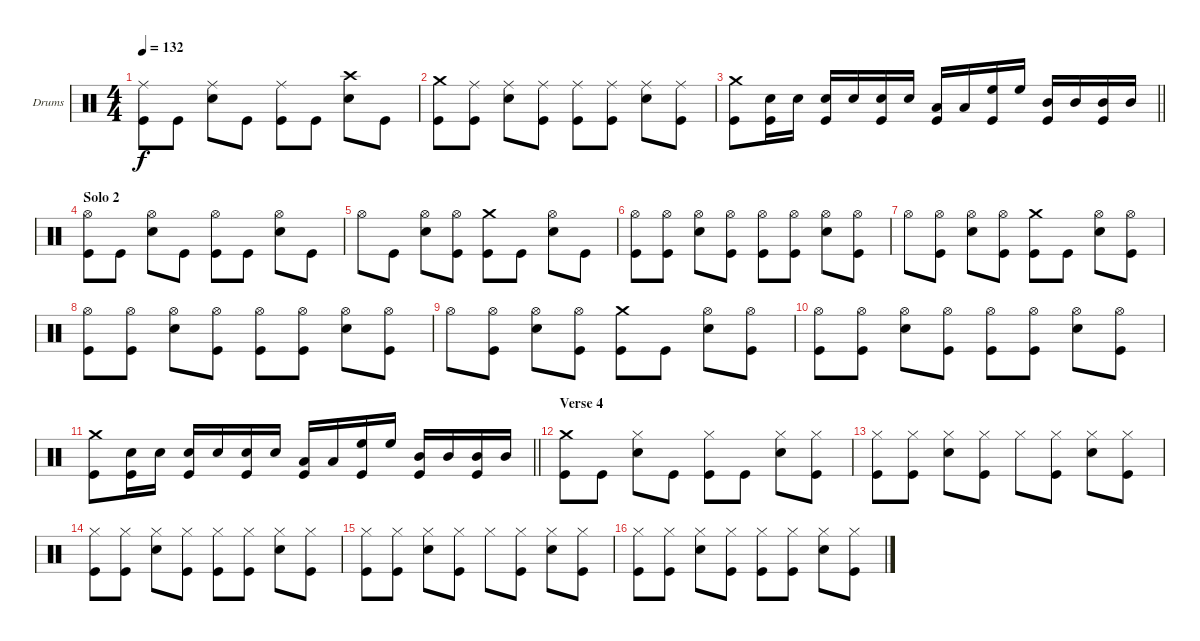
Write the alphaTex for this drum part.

\bracketExtendMode groupsimilarinstruments
\firstSystemTrackNameOrientation horizontal
\otherSystemsTrackNameOrientation horizontal
\track ("Drumkit" "Drums") {instrument percussion}
\staff {score}
\articulation defaults
\ts (4 4)
\tempo 132
\clef neutral
\ks c
("Ride (middle)" "Kick (hit)").8{dy f} "Kick (hit)".8 ("Ride (middle)" "Snare (hit) 2").8 "Kick (hit)".8 ("Ride (middle)" "Kick (hit)").8 "Kick (hit)".8 ("Crash high (hit)" "Snare (hit) 2").8 "Kick (hit)".8 |
("Crash medium (hit)" "Kick (hit)").8 ("Ride (middle)" "Kick (hit)").8 ("Ride (middle)" "Snare (hit) 2").8 ("Ride (middle)" "Kick (hit)").8 ("Ride (middle)" "Kick (hit)").8 ("Ride (middle)" "Kick (hit)").8 ("Ride (middle)" "Snare (hit) 2").8 ("Ride (middle)" "Kick (hit)").8 |
\barLineRight lightlight
("Crash medium (hit)" "Kick (hit)").8 ("Snare (hit) 2" "Kick (hit)").16 "Snare (hit) 2".16 ("Snare (hit) 2" "Kick (hit)").16 "Snare (hit) 2".16 ("Snare (hit) 2" "Kick (hit)").16 "Snare (hit) 2".16 ("Low Tom (hit)" "Kick (hit)").16 "Low Tom (hit)".16 ("High Floor Tom (hit)" "Kick (hit)").16 "High Floor Tom (hit)".16 ("Mid Tom (hit)" "Kick (hit)").16 "Mid Tom (hit)".16 ("Mid Tom (hit)" "Kick (hit)").16 "Mid Tom (hit)".16 |
\section ("" "Solo 2")
("Hi-Hat (open)" "Kick (hit)").8 "Kick (hit)".8 ("Hi-Hat (open)" "Snare (hit) 2").8 "Kick (hit)".8 ("Hi-Hat (open)" "Kick (hit)").8 "Kick (hit)".8 ("Hi-Hat (open)" "Snare (hit) 2").8 "Kick (hit)".8 |
"Hi-Hat (open)".8 "Kick (hit)".8 ("Hi-Hat (open)" "Snare (hit) 2").8 ("Hi-Hat (open)" "Kick (hit)").8 ("Crash medium (hit)" "Kick (hit)").8 "Kick (hit)".8 ("Hi-Hat (open)" "Snare (hit) 2").8 "Kick (hit)".8 |
("Hi-Hat (open)" "Kick (hit)").8 ("Hi-Hat (open)" "Kick (hit)").8 ("Hi-Hat (open)" "Snare (hit) 2").8 ("Hi-Hat (open)" "Kick (hit)").8 ("Hi-Hat (open)" "Kick (hit)").8 ("Hi-Hat (open)" "Kick (hit)").8 ("Hi-Hat (open)" "Snare (hit) 2").8 ("Hi-Hat (open)" "Kick (hit)").8 |
"Hi-Hat (open)".8 ("Hi-Hat (open)" "Kick (hit)").8 ("Hi-Hat (open)" "Snare (hit) 2").8 ("Hi-Hat (open)" "Kick (hit)").8 ("Crash medium (hit)" "Kick (hit)").8 "Kick (hit)".8 ("Hi-Hat (open)" "Snare (hit) 2").8 ("Hi-Hat (open)" "Kick (hit)").8 |
("Hi-Hat (open)" "Kick (hit)").8 ("Hi-Hat (open)" "Kick (hit)").8 ("Hi-Hat (open)" "Snare (hit) 2").8 ("Hi-Hat (open)" "Kick (hit)").8 ("Hi-Hat (open)" "Kick (hit)").8 ("Hi-Hat (open)" "Kick (hit)").8 ("Hi-Hat (open)" "Snare (hit) 2").8 ("Hi-Hat (open)" "Kick (hit)").8 |
"Hi-Hat (open)".8 ("Hi-Hat (open)" "Kick (hit)").8 ("Hi-Hat (open)" "Snare (hit) 2").8 ("Hi-Hat (open)" "Kick (hit)").8 ("Crash medium (hit)" "Kick (hit)").8 "Kick (hit)".8 ("Hi-Hat (open)" "Snare (hit) 2").8 ("Hi-Hat (open)" "Kick (hit)").8 |
("Hi-Hat (open)" "Kick (hit)").8 ("Hi-Hat (open)" "Kick (hit)").8 ("Hi-Hat (open)" "Snare (hit) 2").8 ("Hi-Hat (open)" "Kick (hit)").8 ("Hi-Hat (open)" "Kick (hit)").8 ("Hi-Hat (open)" "Kick (hit)").8 ("Hi-Hat (open)" "Snare (hit) 2").8 ("Hi-Hat (open)" "Kick (hit)").8 |
\barLineRight lightlight
("Crash medium (hit)" "Kick (hit)").8 ("Snare (hit) 2" "Kick (hit)").16 "Snare (hit) 2".16 ("Snare (hit) 2" "Kick (hit)").16 "Snare (hit) 2".16 ("Snare (hit) 2" "Kick (hit)").16 "Snare (hit) 2".16 ("Low Tom (hit)" "Kick (hit)").16 "Low Tom (hit)".16 ("High Floor Tom (hit)" "Kick (hit)").16 "High Floor Tom (hit)".16 ("Mid Tom (hit)" "Kick (hit)").16 "Mid Tom (hit)".16 ("Mid Tom (hit)" "Kick (hit)").16 "Mid Tom (hit)".16 |
\section ("" "Verse 4")
("Crash medium (hit)" "Kick (hit)").8 "Kick (hit)".8 ("Hi-Hat (closed)" "Snare (hit) 2").8 "Kick (hit)".8 ("Hi-Hat (closed)" "Kick (hit)").8 "Kick (hit)".8 ("Hi-Hat (closed)" "Snare (hit) 2").8 ("Hi-Hat (closed)" "Kick (hit)").8 |
("Hi-Hat (closed)" "Kick (hit)").8 ("Hi-Hat (closed)" "Kick (hit)").8 ("Hi-Hat (closed)" "Snare (hit) 2").8 ("Hi-Hat (closed)" "Kick (hit)").8 "Hi-Hat (closed)".8 ("Hi-Hat (closed)" "Kick (hit)").8 ("Hi-Hat (closed)" "Snare (hit) 2").8 ("Hi-Hat (closed)" "Kick (hit)").8 |
("Hi-Hat (closed)" "Kick (hit)").8 ("Hi-Hat (closed)" "Kick (hit)").8 ("Hi-Hat (closed)" "Snare (hit) 2").8 ("Hi-Hat (closed)" "Kick (hit)").8 ("Hi-Hat (closed)" "Kick (hit)").8 ("Hi-Hat (closed)" "Kick (hit)").8 ("Hi-Hat (closed)" "Snare (hit) 2").8 ("Hi-Hat (closed)" "Kick (hit)").8 |
("Hi-Hat (closed)" "Kick (hit)").8 ("Hi-Hat (closed)" "Kick (hit)").8 ("Hi-Hat (closed)" "Snare (hit) 2").8 ("Hi-Hat (closed)" "Kick (hit)").8 "Hi-Hat (closed)".8 ("Hi-Hat (closed)" "Kick (hit)").8 ("Hi-Hat (closed)" "Snare (hit) 2").8 ("Hi-Hat (closed)" "Kick (hit)").8 |
("Hi-Hat (closed)" "Kick (hit)").8 ("Hi-Hat (closed)" "Kick (hit)").8 ("Hi-Hat (closed)" "Snare (hit) 2").8 ("Hi-Hat (closed)" "Kick (hit)").8 ("Hi-Hat (closed)" "Kick (hit)").8 ("Hi-Hat (closed)" "Kick (hit)").8 ("Hi-Hat (closed)" "Snare (hit) 2").8 ("Hi-Hat (closed)" "Kick (hit)").8
